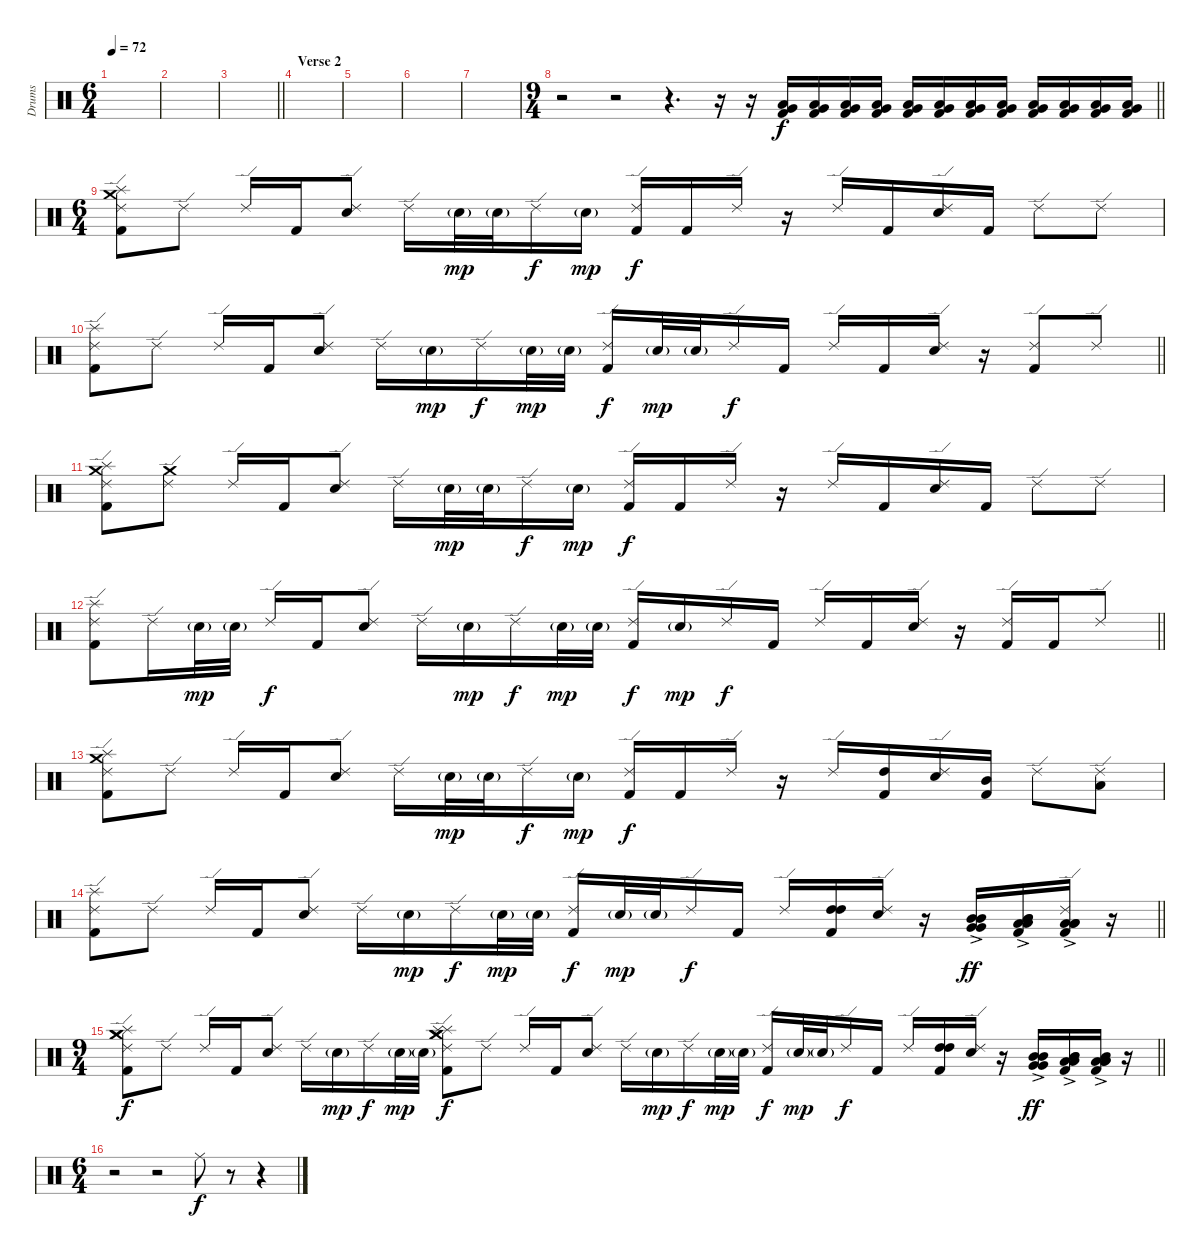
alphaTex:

\track ("Drums" "Drums") {instrument percussion}
\staff {score}
\articulation defaults
\ts (6 4)
\tempo 72
\clef neutral
\ks c
|
|
\barLineRight lightlight
|
\section ("" "Verse 2")
|
|
|
|
\ts (9 4)
\barLineRight lightlight
r.2 r.2 r.4{d} r.16{volume 1} r.16{volume 13} ("Very Low Tom (hit)" "Low Floor Tom (hit)" "Kick (hit) 2").16 ("Very Low Tom (hit)" "Low Floor Tom (hit)" "Kick (hit) 2").16 ("Very Low Tom (hit)" "Low Floor Tom (hit)" "Kick (hit) 2").16 ("Very Low Tom (hit)" "Low Floor Tom (hit)" "Kick (hit) 2").16 ("Very Low Tom (hit)" "Low Floor Tom (hit)" "Kick (hit) 2").16 ("Very Low Tom (hit)" "Low Floor Tom (hit)" "Kick (hit) 2").16 ("Very Low Tom (hit)" "Low Floor Tom (hit)" "Kick (hit) 2").16 ("Very Low Tom (hit)" "Low Floor Tom (hit)" "Kick (hit) 2").16 ("Very Low Tom (hit)" "Low Floor Tom (hit)" "Kick (hit) 2").16 ("Very Low Tom (hit)" "Low Floor Tom (hit)" "Kick (hit) 2").16 ("Very Low Tom (hit)" "Low Floor Tom (hit)" "Kick (hit) 2").16 ("Very Low Tom (hit)" "Low Floor Tom (hit)" "Kick (hit) 2").16 |
\ts (6 4)
\section ("" "")
("Crash medium (hit)" "Ride (edge) 2" "Splash (hit)" "Kick (hit) 2").8 "Ride (edge) 2".8 "Ride (edge) 2".16 "Kick (hit) 2".16 ("Ride (edge) 2" "Electric Snare (hit)").8 "Ride (edge) 2".16 "Electric Snare (hit)"{g}.32{dy mp} "Electric Snare (hit)"{g}.32 "Ride (edge) 2".16{dy f} "Electric Snare (hit)"{g}.16{dy mp} ("Ride (edge) 2" "Kick (hit) 2").16{dy f} "Kick (hit) 2".16 "Ride (edge) 2".16 r.16 "Ride (edge) 2".16 "Kick (hit) 2".16 ("Ride (edge) 2" "Electric Snare (hit)").16 "Kick (hit) 2".16 "Ride (edge) 2".8 "Ride (edge) 2".8 |
\barLineRight lightlight
("Ride (edge) 2" "Splash (hit)" "Kick (hit) 2").8 "Ride (edge) 2".8 "Ride (edge) 2".16 "Kick (hit) 2".16 ("Ride (edge) 2" "Electric Snare (hit)").8 "Ride (edge) 2".16 "Electric Snare (hit)"{g}.16{dy mp} "Ride (edge) 2".16{dy f} "Electric Snare (hit)"{g}.32{dy mp} "Electric Snare (hit)"{g}.32 ("Ride (edge) 2" "Kick (hit) 2").16{dy f} "Electric Snare (hit)"{g}.32{dy mp} "Electric Snare (hit)"{g}.32 "Ride (edge) 2".16{dy f} "Kick (hit) 2".16 "Ride (edge) 2".16 "Kick (hit) 2".16 ("Ride (edge) 2" "Electric Snare (hit)").16 r.16 ("Ride (edge) 2" "Kick (hit) 2").8 "Ride (edge) 2".8 |
("Crash medium (hit)" "Ride (edge) 2" "Splash (hit)" "Kick (hit) 2").8 ("Crash medium (hit)" "Ride (edge) 2").8 "Ride (edge) 2".16 "Kick (hit) 2".16 ("Ride (edge) 2" "Electric Snare (hit)").8 "Ride (edge) 2".16 "Electric Snare (hit)"{g}.32{dy mp} "Electric Snare (hit)"{g}.32 "Ride (edge) 2".16{dy f} "Electric Snare (hit)"{g}.16{dy mp} ("Ride (edge) 2" "Kick (hit) 2").16{dy f} "Kick (hit) 2".16 "Ride (edge) 2".16 r.16 "Ride (edge) 2".16 "Kick (hit) 2".16 ("Ride (edge) 2" "Electric Snare (hit)").16 "Kick (hit) 2".16 "Ride (edge) 2".8 "Ride (edge) 2".8 |
\barLineRight lightlight
("Ride (edge) 2" "Splash (hit)" "Kick (hit) 2").8 "Ride (edge) 2".16 "Electric Snare (hit)"{g}.32{dy mp} "Electric Snare (hit)"{g}.32 "Ride (edge) 2".16{dy f} "Kick (hit) 2".16 ("Ride (edge) 2" "Electric Snare (hit)").8 "Ride (edge) 2".16 "Electric Snare (hit)"{g}.16{dy mp} "Ride (edge) 2".16{dy f} "Electric Snare (hit)"{g}.32{dy mp} "Electric Snare (hit)"{g}.32 ("Ride (edge) 2" "Kick (hit) 2").16{dy f} "Electric Snare (hit)"{g}.16{dy mp} "Ride (edge) 2".16{dy f} "Kick (hit) 2".16 "Ride (edge) 2".16 "Kick (hit) 2".16 ("Ride (edge) 2" "Electric Snare (hit)").16 r.16 ("Ride (edge) 2" "Kick (hit) 2").16 "Kick (hit) 2".16 "Ride (edge) 2".8 |
("Crash medium (hit)" "Ride (edge) 2" "Splash (hit)" "Kick (hit) 2").8 "Ride (edge) 2".8 "Ride (edge) 2".16 "Kick (hit) 2".16 ("Ride (edge) 2" "Electric Snare (hit)").8 "Ride (edge) 2".16 "Electric Snare (hit)"{g}.32{dy mp} "Electric Snare (hit)"{g}.32 "Ride (edge) 2".16{dy f} "Electric Snare (hit)"{g}.16{dy mp} ("Ride (edge) 2" "Kick (hit) 2").16{dy f} "Kick (hit) 2".16 "Ride (edge) 2".16 r.16 "Ride (edge) 2".16 ("High Tom (hit)" "Kick (hit) 2").16 ("Ride (edge) 2" "Electric Snare (hit)").16 ("Mid Tom (hit)" "Kick (hit) 2").16 "Ride (edge) 2".8 ("Low Tom (hit)" "Ride (edge) 2").8 |
\barLineRight lightlight
("Ride (edge) 2" "Splash (hit)" "Kick (hit) 2").8 "Ride (edge) 2".8 "Ride (edge) 2".16 "Kick (hit) 2".16 ("Ride (edge) 2" "Electric Snare (hit)").8 "Ride (edge) 2".16 "Electric Snare (hit)"{g}.16{dy mp} "Ride (edge) 2".16{dy f} "Electric Snare (hit)"{g}.32{dy mp} "Electric Snare (hit)"{g}.32 ("Ride (edge) 2" "Kick (hit) 2").16{dy f} "Electric Snare (hit)"{g}.32{dy mp} "Electric Snare (hit)"{g}.32 "Ride (edge) 2".16{dy f} "Kick (hit) 2".16 "Ride (edge) 2".16 ("High Tom (hit)" "High Tom (hit)" "Kick (hit) 2").16 ("Ride (edge) 2" "Electric Snare (hit)").16 r.16 ("Mid Tom (hit)" "Mid Tom (hit)"{ac} "Very Low Tom (hit)" "Very Low Tom (hit)"{ac}).16{dy ff} ("Mid Tom (hit)" "Mid Tom (hit)"{ac} "Low Tom (hit)" "Low Tom (hit)" "Kick (hit) 2"{ac}).16 ("Low Tom (hit)" "Ride (edge) 2" "Low Tom (hit)"{ac} "Low Tom (hit)" "Kick (hit) 2"{ac}).16 r.16 |
\ts (9 4)
\barLineRight lightlight
("Crash medium (hit)" "Ride (edge) 2" "Splash (hit)" "Crash medium (hit)" "Kick (hit) 2").8{dy f} "Ride (edge) 2".8 "Ride (edge) 2".16 "Kick (hit) 2".16 ("Ride (edge) 2" "Electric Snare (hit)").8 "Ride (edge) 2".16 "Electric Snare (hit)"{g}.16{dy mp} "Ride (edge) 2".16{dy f} "Electric Snare (hit)"{g}.32{dy mp} "Electric Snare (hit)"{g}.32 ("Crash medium (hit)" "Ride (edge) 2" "Splash (hit)" "Splash (hit)" "Kick (hit) 2" "Crash medium (hit)").8{dy f} "Ride (edge) 2".8 "Ride (edge) 2".16 "Kick (hit) 2".16 ("Ride (edge) 2" "Electric Snare (hit)").8 "Ride (edge) 2".16 "Electric Snare (hit)"{g}.16{dy mp} "Ride (edge) 2".16{dy f} "Electric Snare (hit)"{g}.32{dy mp} "Electric Snare (hit)"{g}.32 ("Ride (edge) 2" "Kick (hit) 2").16{dy f} "Electric Snare (hit)"{g}.32{dy mp} "Electric Snare (hit)"{g}.32 "Ride (edge) 2".16{dy f} "Kick (hit) 2".16 "Ride (edge) 2".16 ("High Tom (hit)" "High Tom (hit)" "Kick (hit) 2").16 ("Ride (edge) 2" "Electric Snare (hit)").16 r.16 ("Mid Tom (hit)" "Mid Tom (hit)"{ac} "Very Low Tom (hit)" "Very Low Tom (hit)"{ac}).16{dy ff} ("Mid Tom (hit)" "Mid Tom (hit)"{ac} "Low Tom (hit)" "Low Tom (hit)" "Kick (hit) 2"{ac}).16 ("Low Tom (hit)" "Mid Tom (hit)" "Low Tom (hit)"{ac} "Low Tom (hit)" "Kick (hit) 2"{ac}).16 r.16 |
\ts (6 4)
\section ("" "")
r.2 r.2 "Ride (middle)".8{dy f} r.8 r.4
